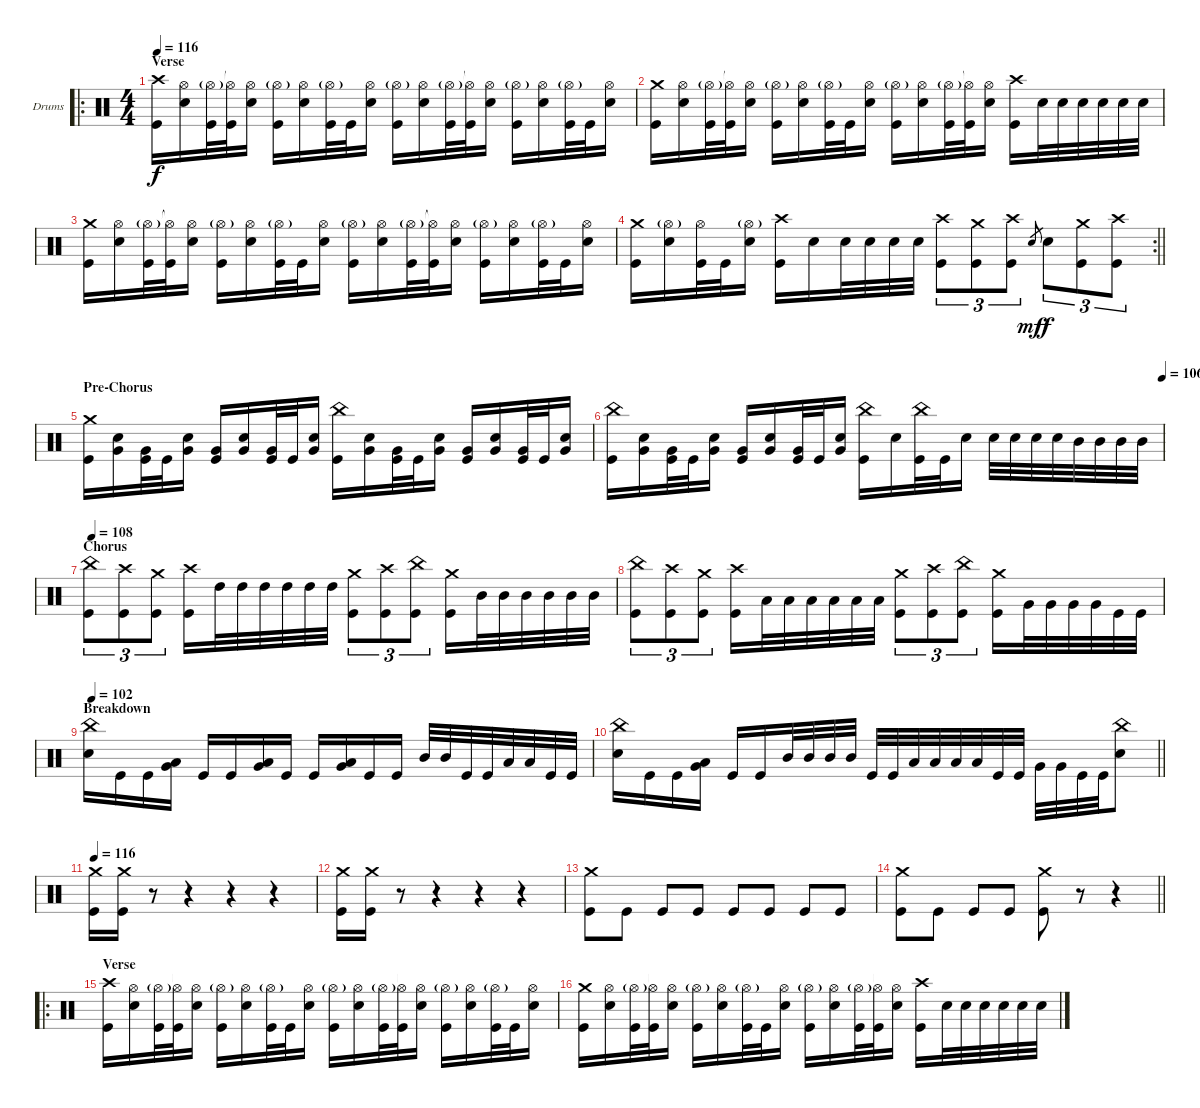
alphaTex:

\bracketExtendMode groupsimilarinstruments
\firstSystemTrackNameOrientation horizontal
\otherSystemsTrackNameOrientation horizontal
\track ("Dave McClain" "Drums") {instrument percussion}
\staff {score}
\articulation defaults
\ro
\ts (4 4)
\section ("" "Verse")
\tempo 116
\clef neutral
\ks c
("Crash high (hit)" "Kick (hit)").16{dy f} ("Hi-Hat (open)" "Snare (hit) 2").16 ("Hi-Hat (open)"{g} "Kick (hit)").32 ("Hi-Hat (open)"{t} "Kick (hit)").32 ("Hi-Hat (open)" "Snare (hit) 2").16 ("Hi-Hat (open)"{g} "Kick (hit)").16 ("Hi-Hat (open)" "Snare (hit) 2").16 ("Hi-Hat (open)"{g} "Kick (hit)").32 "Kick (hit)".32 ("Hi-Hat (open)" "Snare (hit) 2").16 ("Hi-Hat (open)"{g} "Kick (hit)").16 ("Hi-Hat (open)" "Snare (hit) 2").16 ("Hi-Hat (open)"{g} "Kick (hit)").32 ("Hi-Hat (open)"{t} "Kick (hit)").32 ("Hi-Hat (open)" "Snare (hit) 2").16 ("Hi-Hat (open)"{g} "Kick (hit)").16 ("Hi-Hat (open)" "Snare (hit) 2").16 ("Hi-Hat (open)"{g} "Kick (hit)").32 "Kick (hit)".32 ("Hi-Hat (open)" "Snare (hit) 2").16 |
("Crash medium (hit)" "Kick (hit)").16 ("Hi-Hat (open)" "Snare (hit) 2").16 ("Hi-Hat (open)"{g} "Kick (hit)").32 ("Hi-Hat (open)"{t} "Kick (hit)").32 ("Hi-Hat (open)" "Snare (hit) 2").16 ("Hi-Hat (open)"{g} "Kick (hit)").16 ("Hi-Hat (open)" "Snare (hit) 2").16 ("Hi-Hat (open)"{g} "Kick (hit)").32 "Kick (hit)".32 ("Hi-Hat (open)" "Snare (hit) 2").16 ("Hi-Hat (open)"{g} "Kick (hit)").16 ("Hi-Hat (open)" "Snare (hit) 2").16 ("Hi-Hat (open)"{g} "Kick (hit)").32 ("Hi-Hat (open)"{t} "Kick (hit)").32 ("Hi-Hat (open)" "Snare (hit) 2").16 ("Crash high (hit)" "Kick (hit)").16 "Snare (hit) 2".32 "Snare (hit) 2".32 "Snare (hit) 2".32 "Snare (hit) 2".32 "Snare (hit) 2".32 "Snare (hit) 2".32 |
("Crash medium (hit)" "Kick (hit)").16 ("Hi-Hat (open)" "Snare (hit) 2").16 ("Hi-Hat (open)"{g} "Kick (hit)").32 ("Hi-Hat (open)"{t} "Kick (hit)").32 ("Hi-Hat (open)" "Snare (hit) 2").16 ("Hi-Hat (open)"{g} "Kick (hit)").16 ("Hi-Hat (open)" "Snare (hit) 2").16 ("Hi-Hat (open)"{g} "Kick (hit)").32 "Kick (hit)".32 ("Hi-Hat (open)" "Snare (hit) 2").16 ("Hi-Hat (open)"{g} "Kick (hit)").16 ("Hi-Hat (open)" "Snare (hit) 2").16 ("Hi-Hat (open)"{g} "Kick (hit)").32 ("Hi-Hat (open)"{t} "Kick (hit)").32 ("Hi-Hat (open)" "Snare (hit) 2").16 ("Hi-Hat (open)"{g} "Kick (hit)").16 ("Hi-Hat (open)" "Snare (hit) 2").16 ("Hi-Hat (open)"{g} "Kick (hit)").32 "Kick (hit)".32 ("Hi-Hat (open)" "Snare (hit) 2").16 |
\rc 2
\barLineRight lightlight
("Crash medium (hit)" "Kick (hit)").16 ("Hi-Hat (open)"{g} "Snare (hit) 2").16 ("Hi-Hat (open)" "Kick (hit)").32 "Kick (hit)".32 ("Hi-Hat (open)"{g} "Snare (hit) 2").16 ("Crash high (hit)" "Kick (hit)").16 "Snare (hit) 2".16 "Snare (hit) 2".32 "Snare (hit) 2".32 "Snare (hit) 2".32 "Snare (hit) 2".32 ("Crash high (hit)" "Kick (hit)").8{tu (3 2)} ("Crash medium (hit)" "Kick (hit)").8{tu (3 2)} ("Crash high (hit)" "Kick (hit)").8{tu (3 2)} "Snare (hit) 2".8{gr dy mf} "Snare (hit) 2".8{tu (3 2) dy f} ("Crash medium (hit)" "Kick (hit)").8{tu (3 2)} ("Crash high (hit)" "Kick (hit)").8{tu (3 2)} |
\section ("" "Pre-Chorus")
("Crash medium (hit)" "Kick (hit)").16 ("Snare (hit) 2" "Very Low Tom (hit)").16 ("Very Low Tom (hit)" "Kick (hit)").32 "Kick (hit)".32 ("Snare (hit) 2" "Very Low Tom (hit)").16 ("Very Low Tom (hit)" "Kick (hit)").16 ("Snare (hit) 2" "Very Low Tom (hit)").16 ("Very Low Tom (hit)" "Kick (hit)").32 "Kick (hit)".32 ("Snare (hit) 2" "Very Low Tom (hit)").16 ("China (hit)" "Kick (hit)").16 ("Snare (hit) 2" "Very Low Tom (hit)").16 ("Very Low Tom (hit)" "Kick (hit)").32 "Kick (hit)".32 ("Snare (hit) 2" "Very Low Tom (hit)").16 ("Very Low Tom (hit)" "Kick (hit)").16 ("Snare (hit) 2" "Very Low Tom (hit)").16 ("Very Low Tom (hit)" "Kick (hit)").32 "Kick (hit)".32 ("Snare (hit) 2" "Very Low Tom (hit)").16 |
\tempo (106 1)
("China (hit)" "Kick (hit)").16 ("Snare (hit) 2" "Very Low Tom (hit)").16 ("Very Low Tom (hit)" "Kick (hit)").32 "Kick (hit)".32 ("Snare (hit) 2" "Very Low Tom (hit)").16 ("Very Low Tom (hit)" "Kick (hit)").16 ("Snare (hit) 2" "Very Low Tom (hit)").16 ("Very Low Tom (hit)" "Kick (hit)").32 "Kick (hit)".32 ("Snare (hit) 2" "Very Low Tom (hit)").16 ("China (hit)" "Kick (hit)").16 "Snare (hit) 2".16 ("China (hit)" "Kick (hit)").32 "Kick (hit)".32 "Snare (hit) 2".16 "Snare (hit) 2".32 "Snare (hit) 2".32 "Snare (hit) 2".32 "Snare (hit) 2".32 "Mid Tom (hit)".32 "Mid Tom (hit)".32 "Mid Tom (hit)".32 "Mid Tom (hit)".32 |
\section ("" "Chorus")
\tempo 108
("China (hit)" "Kick (hit)").8{tu (3 2)} ("Crash high (hit)" "Kick (hit)").8{tu (3 2)} ("Crash medium (hit)" "Kick (hit)").8{tu (3 2)} ("Crash high (hit)" "Kick (hit)").16 "High Tom (hit)".32 "High Tom (hit)".32 "High Tom (hit)".32 "High Tom (hit)".32 "High Tom (hit)".32 "High Tom (hit)".32 ("Crash medium (hit)" "Kick (hit)").8{tu (3 2)} ("Crash high (hit)" "Kick (hit)").8{tu (3 2)} ("China (hit)" "Kick (hit)").8{tu (3 2)} ("Crash medium (hit)" "Kick (hit)").16 "Mid Tom (hit)".32 "Mid Tom (hit)".32 "Mid Tom (hit)".32 "Mid Tom (hit)".32 "Mid Tom (hit)".32 "Mid Tom (hit)".32 |
("China (hit)" "Kick (hit)").8{tu (3 2)} ("Crash high (hit)" "Kick (hit)").8{tu (3 2)} ("Crash medium (hit)" "Kick (hit)").8{tu (3 2)} ("Crash high (hit)" "Kick (hit)").16 "Low Tom (hit)".32 "Low Tom (hit)".32 "Low Tom (hit)".32 "Low Tom (hit)".32 "Low Tom (hit)".32 "Low Tom (hit)".32 ("Crash medium (hit)" "Kick (hit)").8{tu (3 2)} ("Crash high (hit)" "Kick (hit)").8{tu (3 2)} ("China (hit)" "Kick (hit)").8{tu (3 2)} ("Crash medium (hit)" "Kick (hit)").16 "Very Low Tom (hit)".32 "Very Low Tom (hit)".32 "Very Low Tom (hit)".32 "Very Low Tom (hit)".32 "Kick (hit)".32 "Kick (hit)".32 |
\section ("" "Breakdown")
\tempo 102
("China (hit)" "Snare (hit) 2").16 "Kick (hit)".16 "Kick (hit)".16 ("Low Tom (hit)" "Very Low Tom (hit)").16 "Kick (hit)".16 "Kick (hit)".16 ("Low Tom (hit)" "Very Low Tom (hit)").16 "Kick (hit)".16 "Kick (hit)".16 ("Low Tom (hit)" "Very Low Tom (hit)").16 "Kick (hit)".16 "Kick (hit)".16 "Mid Tom (hit)".32 "Mid Tom (hit)".32 "Kick (hit)".32 "Kick (hit)".32 "Low Tom (hit)".32 "Low Tom (hit)".32 "Kick (hit)".32 "Kick (hit)".32 |
\barLineRight lightlight
("China (hit)" "Snare (hit) 2").16 "Kick (hit)".16 "Kick (hit)".16 ("Low Tom (hit)" "Very Low Tom (hit)").16 "Kick (hit)".16 "Kick (hit)".16 "Mid Tom (hit)".32 "Mid Tom (hit)".32 "Mid Tom (hit)".32 "Mid Tom (hit)".32 "Kick (hit)".32 "Kick (hit)".32 "Low Tom (hit)".32 "Low Tom (hit)".32 "Low Tom (hit)".32 "Low Tom (hit)".32 "Kick (hit)".32 "Kick (hit)".32 "Very Low Tom (hit)".32 "Very Low Tom (hit)".32 "Kick (hit)".32 "Kick (hit)".32 ("China (hit)" "Snare (hit) 2").8 |
\tempo 116
("Crash medium (hit)" "Kick (hit)").16 ("Crash medium (hit)" "Kick (hit)").16 r.8 r.4 r.4 r.4 |
("Crash medium (hit)" "Kick (hit)").16 ("Crash medium (hit)" "Kick (hit)").16 r.8 r.4 r.4 r.4 |
("Crash medium (hit)" "Kick (hit)").8 "Kick (hit)".8 "Kick (hit)".8 "Kick (hit)".8 "Kick (hit)".8 "Kick (hit)".8 "Kick (hit)".8 "Kick (hit)".8 |
\barLineRight lightlight
("Crash medium (hit)" "Kick (hit)").8 "Kick (hit)".8 "Kick (hit)".8 "Kick (hit)".8 ("Crash medium (hit)" "Kick (hit)").8 r.8 r.4 |
\ro
\section ("" "Verse")
("Crash high (hit)" "Kick (hit)").16 ("Hi-Hat (open)" "Snare (hit) 2").16 ("Hi-Hat (open)"{g} "Kick (hit)").32 ("Hi-Hat (open)"{t} "Kick (hit)").32 ("Hi-Hat (open)" "Snare (hit) 2").16 ("Hi-Hat (open)"{g} "Kick (hit)").16 ("Hi-Hat (open)" "Snare (hit) 2").16 ("Hi-Hat (open)"{g} "Kick (hit)").32 "Kick (hit)".32 ("Hi-Hat (open)" "Snare (hit) 2").16 ("Hi-Hat (open)"{g} "Kick (hit)").16 ("Hi-Hat (open)" "Snare (hit) 2").16 ("Hi-Hat (open)"{g} "Kick (hit)").32 ("Hi-Hat (open)"{t} "Kick (hit)").32 ("Hi-Hat (open)" "Snare (hit) 2").16 ("Hi-Hat (open)"{g} "Kick (hit)").16 ("Hi-Hat (open)" "Snare (hit) 2").16 ("Hi-Hat (open)"{g} "Kick (hit)").32 "Kick (hit)".32 ("Hi-Hat (open)" "Snare (hit) 2").16 |
("Crash medium (hit)" "Kick (hit)").16 ("Hi-Hat (open)" "Snare (hit) 2").16 ("Hi-Hat (open)"{g} "Kick (hit)").32 ("Hi-Hat (open)"{t} "Kick (hit)").32 ("Hi-Hat (open)" "Snare (hit) 2").16 ("Hi-Hat (open)"{g} "Kick (hit)").16 ("Hi-Hat (open)" "Snare (hit) 2").16 ("Hi-Hat (open)"{g} "Kick (hit)").32 "Kick (hit)".32 ("Hi-Hat (open)" "Snare (hit) 2").16 ("Hi-Hat (open)"{g} "Kick (hit)").16 ("Hi-Hat (open)" "Snare (hit) 2").16 ("Hi-Hat (open)"{g} "Kick (hit)").32 ("Hi-Hat (open)"{t} "Kick (hit)").32 ("Hi-Hat (open)" "Snare (hit) 2").16 ("Crash high (hit)" "Kick (hit)").16 "Snare (hit) 2".32 "Snare (hit) 2".32 "Snare (hit) 2".32 "Snare (hit) 2".32 "Snare (hit) 2".32 "Snare (hit) 2".32
